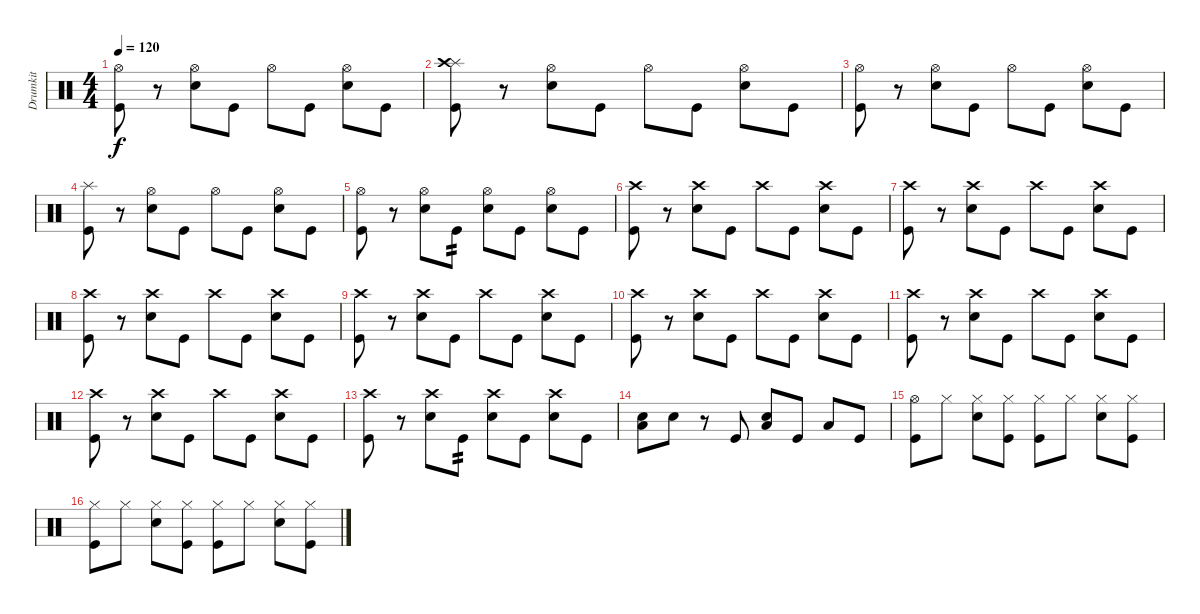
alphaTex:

\track ("Drumkit" "Drumkit") {instrument percussion}
\staff {score}
\articulation defaults
\ts (4 4)
\tempo 120
\clef neutral
\ks c
("Kick (hit)" "Hi-Hat (open)").8{dy f} r.8 ("Snare (hit) 2" "Hi-Hat (open)").8 "Kick (hit)".8 "Hi-Hat (open)".8 "Kick (hit)".8 ("Snare (hit) 2" "Hi-Hat (open)").8 "Kick (hit)".8 |
("Kick (hit)" "Splash (hit)" "Crash high (hit)").8 r.8 ("Snare (hit) 2" "Hi-Hat (open)").8 "Kick (hit)".8 "Hi-Hat (open)".8 "Kick (hit)".8 ("Snare (hit) 2" "Hi-Hat (open)").8 "Kick (hit)".8 |
("Kick (hit)" "Hi-Hat (open)").8 r.8 ("Snare (hit) 2" "Hi-Hat (open)").8 "Kick (hit)".8 "Hi-Hat (open)".8 "Kick (hit)".8 ("Snare (hit) 2" "Hi-Hat (open)").8 "Kick (hit)".8 |
("Kick (hit)" "Splash (hit)").8 r.8 ("Snare (hit) 2" "Hi-Hat (open)").8 "Kick (hit)".8 "Hi-Hat (open)".8 "Kick (hit)".8 ("Snare (hit) 2" "Hi-Hat (open)").8 "Kick (hit)".8 |
("Kick (hit)" "Hi-Hat (open)").8 r.8 ("Snare (hit) 2" "Hi-Hat (open)").8 "Kick (hit)".8{tp 2} ("Hi-Hat (open)" "Snare (hit) 2").8 "Kick (hit)".8 ("Snare (hit) 2" "Hi-Hat (open)").8 "Kick (hit)".8 |
("Kick (hit)" "Crash high (hit)").8 r.8 ("Snare (hit) 2" "Crash high (hit)").8 "Kick (hit)".8 "Crash high (hit)".8 "Kick (hit)".8 ("Snare (hit) 2" "Crash high (hit)").8 "Kick (hit)".8 |
("Kick (hit)" "Crash high (hit)").8 r.8 ("Snare (hit) 2" "Crash high (hit)").8 "Kick (hit)".8 "Crash high (hit)".8 "Kick (hit)".8 ("Snare (hit) 2" "Crash high (hit)").8 "Kick (hit)".8 |
("Kick (hit)" "Crash high (hit)").8 r.8 ("Snare (hit) 2" "Crash high (hit)").8 "Kick (hit)".8 "Crash high (hit)".8 "Kick (hit)".8 ("Snare (hit) 2" "Crash high (hit)").8 "Kick (hit)".8 |
("Kick (hit)" "Crash high (hit)").8 r.8 ("Snare (hit) 2" "Crash high (hit)").8 "Kick (hit)".8 "Crash high (hit)".8 "Kick (hit)".8 ("Snare (hit) 2" "Crash high (hit)").8 "Kick (hit)".8 |
("Kick (hit)" "Crash high (hit)").8 r.8 ("Snare (hit) 2" "Crash high (hit)").8 "Kick (hit)".8 "Crash high (hit)".8 "Kick (hit)".8 ("Snare (hit) 2" "Crash high (hit)").8 "Kick (hit)".8 |
("Kick (hit)" "Crash high (hit)").8 r.8 ("Snare (hit) 2" "Crash high (hit)").8 "Kick (hit)".8 "Crash high (hit)".8 "Kick (hit)".8 ("Snare (hit) 2" "Crash high (hit)").8 "Kick (hit)".8 |
("Kick (hit)" "Crash high (hit)").8 r.8 ("Snare (hit) 2" "Crash high (hit)").8 "Kick (hit)".8 "Crash high (hit)".8 "Kick (hit)".8 ("Snare (hit) 2" "Crash high (hit)").8 "Kick (hit)".8 |
("Kick (hit)" "Crash high (hit)").8 r.8 ("Snare (hit) 2" "Crash high (hit)").8 "Kick (hit)".8{tp 2} ("Snare (hit) 2" "Crash high (hit)").8 "Kick (hit)".8 ("Snare (hit) 2" "Crash high (hit)").8 "Kick (hit)".8 |
("Snare (hit) 2" "Low Floor Tom (hit)").8 "Snare (hit) 2".8 r.8 "Kick (hit)".8 ("Snare (hit) 2" "Low Tom (hit)").8 "Kick (hit)".8 "Low Tom (hit)".8 "Kick (hit)".8 |
("Kick (hit)" "Hi-Hat (open)").8 "Hi-Hat (closed)".8 ("Snare (hit) 2" "Hi-Hat (closed)").8 ("Kick (hit)" "Hi-Hat (closed)").8 ("Kick (hit)" "Hi-Hat (closed)").8 "Hi-Hat (closed)".8 ("Snare (hit) 2" "Hi-Hat (closed)").8 ("Kick (hit)" "Hi-Hat (closed)").8 |
("Kick (hit)" "Hi-Hat (closed)").8 "Hi-Hat (closed)".8 ("Snare (hit) 2" "Hi-Hat (closed)").8 ("Kick (hit)" "Hi-Hat (closed)").8 ("Kick (hit)" "Hi-Hat (closed)").8 "Hi-Hat (closed)".8 ("Snare (hit) 2" "Hi-Hat (closed)").8 ("Kick (hit)" "Hi-Hat (closed)").8
